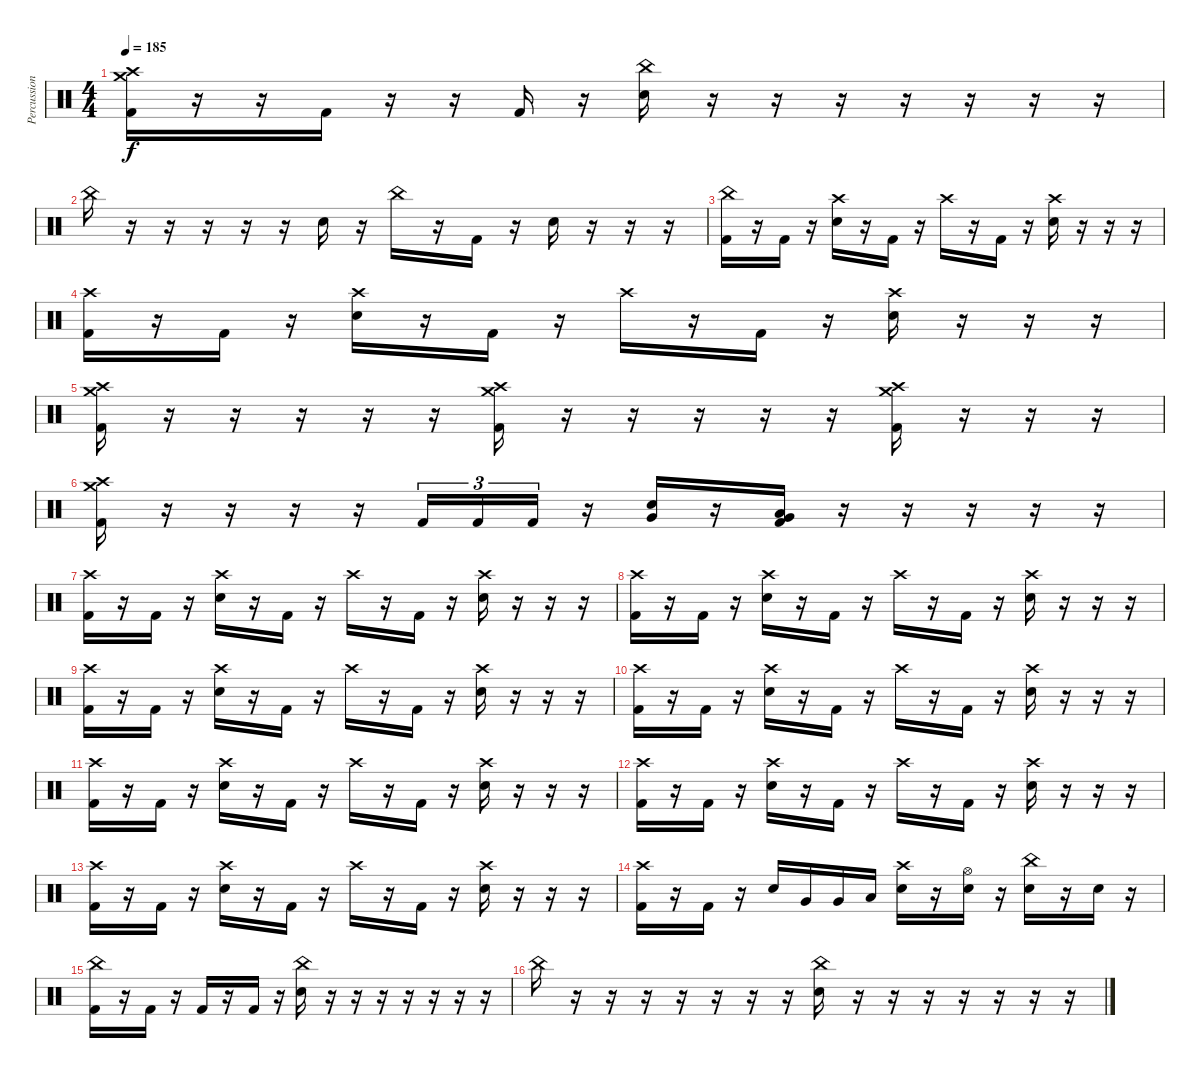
\track ("Percussion" "Percussion") {instrument percussion}
\staff {score}
\articulation defaults
\ts (4 4)
\tempo 185
\clef neutral
\ks c
("Crash medium (hit)" "Crash high (hit)" "Kick (hit) 2").16{dy f} r.16 r.16 "Kick (hit) 2".16 r.16 r.16 "Kick (hit) 2".16 r.16 ("China (hit)" "Electric Snare (hit)").16 r.16 r.16 r.16 r.16 r.16 r.16 r.16 |
"China (hit)".16 r.16 r.16 r.16 r.16 r.16 "Electric Snare (hit)".16 r.16 "China (hit)".16 r.16 "Kick (hit) 2".16 r.16 "Electric Snare (hit)".16 r.16 r.16 r.16 |
("China (hit)" "Kick (hit) 2").16 r.16 "Kick (hit) 2".16 r.16 ("Crash high (hit)" "Electric Snare (hit)").16 r.16 "Kick (hit) 2".16 r.16 "Crash high (hit)".16 r.16 "Kick (hit) 2".16 r.16 ("Crash high (hit)" "Electric Snare (hit)").16 r.16 r.16 r.16 |
("Crash high (hit)" "Kick (hit) 2").16 r.16 "Kick (hit) 2".16 r.16 ("Crash high (hit)" "Electric Snare (hit)").16 r.16 "Kick (hit) 2".16 r.16 "Crash high (hit)".16 r.16 "Kick (hit) 2".16 r.16 ("Crash high (hit)" "Electric Snare (hit)").16 r.16 r.16 r.16 |
("Crash high (hit)" "Crash medium (hit)" "Kick (hit) 2").16 r.16 r.16 r.16 r.16 r.16 ("Crash high (hit)" "Crash medium (hit)" "Kick (hit) 2").16 r.16 r.16 r.16 r.16 r.16 ("Crash high (hit)" "Crash medium (hit)" "Kick (hit) 2").16 r.16 r.16 r.16 |
("Crash high (hit)" "Crash medium (hit)" "Kick (hit) 2").16 r.16 r.16 r.16 r.16 "Kick (hit) 2".16{tu (3 2)} "Kick (hit) 2".16{tu (3 2)} "Kick (hit) 2".16{tu (3 2)} r.16 ("Very Low Tom (hit)" "Electric Snare (hit)").16 r.16 ("Very Low Tom (hit)" "Low Floor Tom (hit)" "Kick (hit) 2").16 r.16 r.16 r.16 r.16 r.16 |
("Crash high (hit)" "Kick (hit) 2").16 r.16 "Kick (hit) 2".16 r.16 ("Crash high (hit)" "Electric Snare (hit)").16 r.16 "Kick (hit) 2".16 r.16 "Crash high (hit)".16 r.16 "Kick (hit) 2".16 r.16 ("Crash high (hit)" "Electric Snare (hit)").16 r.16 r.16 r.16 |
("Crash high (hit)" "Kick (hit) 2").16 r.16 "Kick (hit) 2".16 r.16 ("Crash high (hit)" "Electric Snare (hit)").16 r.16 "Kick (hit) 2".16 r.16 "Crash high (hit)".16 r.16 "Kick (hit) 2".16 r.16 ("Crash high (hit)" "Electric Snare (hit)").16 r.16 r.16 r.16 |
("Crash high (hit)" "Kick (hit) 2").16 r.16 "Kick (hit) 2".16 r.16 ("Crash high (hit)" "Electric Snare (hit)").16 r.16 "Kick (hit) 2".16 r.16 "Crash high (hit)".16 r.16 "Kick (hit) 2".16 r.16 ("Crash high (hit)" "Electric Snare (hit)").16 r.16 r.16 r.16 |
("Crash high (hit)" "Kick (hit) 2").16 r.16 "Kick (hit) 2".16 r.16 ("Crash high (hit)" "Electric Snare (hit)").16 r.16 "Kick (hit) 2".16 r.16 "Crash high (hit)".16 r.16 "Kick (hit) 2".16 r.16 ("Crash high (hit)" "Electric Snare (hit)").16 r.16 r.16 r.16 |
("Crash high (hit)" "Kick (hit) 2").16 r.16 "Kick (hit) 2".16 r.16 ("Crash high (hit)" "Electric Snare (hit)").16 r.16 "Kick (hit) 2".16 r.16 "Crash high (hit)".16 r.16 "Kick (hit) 2".16 r.16 ("Crash high (hit)" "Electric Snare (hit)").16 r.16 r.16 r.16 |
("Crash high (hit)" "Kick (hit) 2").16 r.16 "Kick (hit) 2".16 r.16 ("Crash high (hit)" "Electric Snare (hit)").16 r.16 "Kick (hit) 2".16 r.16 "Crash high (hit)".16 r.16 "Kick (hit) 2".16 r.16 ("Crash high (hit)" "Electric Snare (hit)").16 r.16 r.16 r.16 |
("Crash high (hit)" "Kick (hit) 2").16 r.16 "Kick (hit) 2".16 r.16 ("Crash high (hit)" "Electric Snare (hit)").16 r.16 "Kick (hit) 2".16 r.16 "Crash high (hit)".16 r.16 "Kick (hit) 2".16 r.16 ("Crash high (hit)" "Electric Snare (hit)").16 r.16 r.16 r.16 |
("Crash high (hit)" "Kick (hit) 2").16 r.16 "Kick (hit) 2".16 r.16 "Electric Snare (hit)".16 "Very Low Tom (hit)".16 "Very Low Tom (hit)".16 "Low Floor Tom (hit)".16 ("Crash high (hit)" "Electric Snare (hit)").16 r.16 ("Hi-Hat (open)" "Electric Snare (hit)").16 r.16 ("China (hit)" "Electric Snare (hit)").16 r.16 "Electric Snare (hit)".16 r.16 |
("China (hit)" "Kick (hit) 2").16 r.16 "Kick (hit) 2".16 r.16 "Kick (hit) 2".16 r.16 "Kick (hit) 2".16 r.16 ("China (hit)" "Electric Snare (hit)").16 r.16 r.16 r.16 r.16 r.16 r.16 r.16 |
"China (hit)".16 r.16 r.16 r.16 r.16 r.16 r.16 r.16 ("China (hit)" "Electric Snare (hit)").16 r.16 r.16 r.16 r.16 r.16 r.16 r.16
